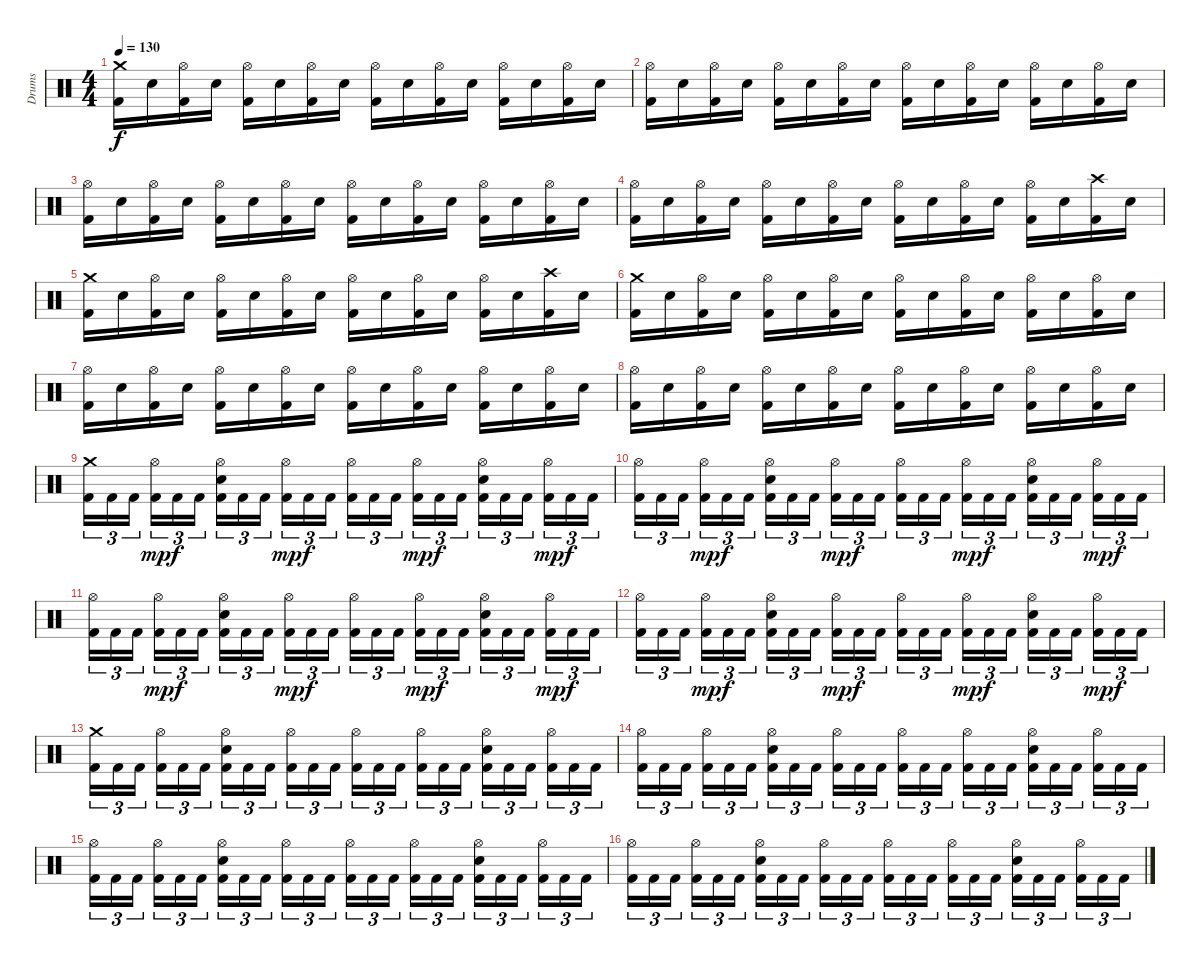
\track ("Drums" "Drums") {instrument percussion}
\staff {score}
\articulation defaults
\ts (4 4)
\tempo 130
\clef neutral
\ks c
("Kick (hit) 2" "Crash medium (hit)").16{dy f} "Electric Snare (hit)".16 ("Kick (hit) 2" "Hi-Hat (open)").16 "Electric Snare (hit)".16 ("Kick (hit) 2" "Hi-Hat (open)").16 "Electric Snare (hit)".16 ("Kick (hit) 2" "Hi-Hat (open)").16 "Electric Snare (hit)".16 ("Kick (hit) 2" "Hi-Hat (open)").16 "Electric Snare (hit)".16 ("Kick (hit) 2" "Hi-Hat (open)").16 "Electric Snare (hit)".16 ("Kick (hit) 2" "Hi-Hat (open)").16 "Electric Snare (hit)".16 ("Kick (hit) 2" "Hi-Hat (open)").16 "Electric Snare (hit)".16 |
("Kick (hit) 2" "Hi-Hat (open)").16 "Electric Snare (hit)".16 ("Kick (hit) 2" "Hi-Hat (open)").16 "Electric Snare (hit)".16 ("Kick (hit) 2" "Hi-Hat (open)").16 "Electric Snare (hit)".16 ("Kick (hit) 2" "Hi-Hat (open)").16 "Electric Snare (hit)".16 ("Kick (hit) 2" "Hi-Hat (open)").16 "Electric Snare (hit)".16 ("Kick (hit) 2" "Hi-Hat (open)").16 "Electric Snare (hit)".16 ("Kick (hit) 2" "Hi-Hat (open)").16 "Electric Snare (hit)".16 ("Kick (hit) 2" "Hi-Hat (open)").16 "Electric Snare (hit)".16 |
("Kick (hit) 2" "Hi-Hat (open)").16 "Electric Snare (hit)".16 ("Kick (hit) 2" "Hi-Hat (open)").16 "Electric Snare (hit)".16 ("Kick (hit) 2" "Hi-Hat (open)").16 "Electric Snare (hit)".16 ("Kick (hit) 2" "Hi-Hat (open)").16 "Electric Snare (hit)".16 ("Kick (hit) 2" "Hi-Hat (open)").16 "Electric Snare (hit)".16 ("Kick (hit) 2" "Hi-Hat (open)").16 "Electric Snare (hit)".16 ("Kick (hit) 2" "Hi-Hat (open)").16 "Electric Snare (hit)".16 ("Kick (hit) 2" "Hi-Hat (open)").16 "Electric Snare (hit)".16 |
("Kick (hit) 2" "Hi-Hat (open)").16 "Electric Snare (hit)".16 ("Kick (hit) 2" "Hi-Hat (open)").16 "Electric Snare (hit)".16 ("Kick (hit) 2" "Hi-Hat (open)").16 "Electric Snare (hit)".16 ("Kick (hit) 2" "Hi-Hat (open)").16 "Electric Snare (hit)".16 ("Kick (hit) 2" "Hi-Hat (open)").16 "Electric Snare (hit)".16 ("Kick (hit) 2" "Hi-Hat (open)").16 "Electric Snare (hit)".16 ("Kick (hit) 2" "Hi-Hat (open)").16 "Electric Snare (hit)".16 ("Kick (hit) 2" "Crash high (hit)").16 "Electric Snare (hit)".16 |
("Kick (hit) 2" "Crash medium (hit)").16 "Electric Snare (hit)".16 ("Kick (hit) 2" "Hi-Hat (open)").16 "Electric Snare (hit)".16 ("Kick (hit) 2" "Hi-Hat (open)").16 "Electric Snare (hit)".16 ("Kick (hit) 2" "Hi-Hat (open)").16 "Electric Snare (hit)".16 ("Kick (hit) 2" "Hi-Hat (open)").16 "Electric Snare (hit)".16 ("Kick (hit) 2" "Hi-Hat (open)").16 "Electric Snare (hit)".16 ("Kick (hit) 2" "Hi-Hat (open)").16 "Electric Snare (hit)".16 ("Kick (hit) 2" "Crash high (hit)").16 "Electric Snare (hit)".16 |
("Kick (hit) 2" "Crash medium (hit)").16 "Electric Snare (hit)".16 ("Kick (hit) 2" "Hi-Hat (open)").16 "Electric Snare (hit)".16 ("Kick (hit) 2" "Hi-Hat (open)").16 "Electric Snare (hit)".16 ("Kick (hit) 2" "Hi-Hat (open)").16 "Electric Snare (hit)".16 ("Kick (hit) 2" "Hi-Hat (open)").16 "Electric Snare (hit)".16 ("Kick (hit) 2" "Hi-Hat (open)").16 "Electric Snare (hit)".16 ("Kick (hit) 2" "Hi-Hat (open)").16 "Electric Snare (hit)".16 ("Kick (hit) 2" "Hi-Hat (open)").16 "Electric Snare (hit)".16 |
("Kick (hit) 2" "Hi-Hat (open)").16 "Electric Snare (hit)".16 ("Kick (hit) 2" "Hi-Hat (open)").16 "Electric Snare (hit)".16 ("Kick (hit) 2" "Hi-Hat (open)").16 "Electric Snare (hit)".16 ("Kick (hit) 2" "Hi-Hat (open)").16 "Electric Snare (hit)".16 ("Kick (hit) 2" "Hi-Hat (open)").16 "Electric Snare (hit)".16 ("Kick (hit) 2" "Hi-Hat (open)").16 "Electric Snare (hit)".16 ("Kick (hit) 2" "Hi-Hat (open)").16 "Electric Snare (hit)".16 ("Kick (hit) 2" "Hi-Hat (open)").16 "Electric Snare (hit)".16 |
("Kick (hit) 2" "Hi-Hat (open)").16 "Electric Snare (hit)".16 ("Kick (hit) 2" "Hi-Hat (open)").16 "Electric Snare (hit)".16 ("Kick (hit) 2" "Hi-Hat (open)").16 "Electric Snare (hit)".16 ("Kick (hit) 2" "Hi-Hat (open)").16 "Electric Snare (hit)".16 ("Kick (hit) 2" "Hi-Hat (open)").16 "Electric Snare (hit)".16 ("Kick (hit) 2" "Hi-Hat (open)").16 "Electric Snare (hit)".16 ("Kick (hit) 2" "Hi-Hat (open)").16 "Electric Snare (hit)".16 ("Kick (hit) 2" "Hi-Hat (open)").16 "Electric Snare (hit)".16 |
("Kick (hit) 2" "Crash medium (hit)").16{tu (3 2)} "Kick (hit) 2".16{tu (3 2)} "Kick (hit) 2".16{tu (3 2) beam splitsecondary} ("Kick (hit) 2" "Hi-Hat (open)").16{tu (3 2) dy mp} "Kick (hit) 2".16{tu (3 2) dy f} "Kick (hit) 2".16{tu (3 2)} ("Kick (hit) 2" "Electric Snare (hit)" "Hi-Hat (open)").16{tu (3 2)} "Kick (hit) 2".16{tu (3 2)} "Kick (hit) 2".16{tu (3 2) beam splitsecondary} ("Kick (hit) 2" "Hi-Hat (open)").16{tu (3 2) dy mp} "Kick (hit) 2".16{tu (3 2) dy f} "Kick (hit) 2".16{tu (3 2)} ("Kick (hit) 2" "Hi-Hat (open)").16{tu (3 2)} "Kick (hit) 2".16{tu (3 2)} "Kick (hit) 2".16{tu (3 2) beam splitsecondary} ("Kick (hit) 2" "Hi-Hat (open)").16{tu (3 2) dy mp} "Kick (hit) 2".16{tu (3 2) dy f} "Kick (hit) 2".16{tu (3 2)} ("Kick (hit) 2" "Electric Snare (hit)" "Hi-Hat (open)").16{tu (3 2)} "Kick (hit) 2".16{tu (3 2)} "Kick (hit) 2".16{tu (3 2) beam splitsecondary} ("Kick (hit) 2" "Hi-Hat (open)").16{tu (3 2) dy mp} "Kick (hit) 2".16{tu (3 2) dy f} "Kick (hit) 2".16{tu (3 2)} |
("Kick (hit) 2" "Hi-Hat (open)").16{tu (3 2)} "Kick (hit) 2".16{tu (3 2)} "Kick (hit) 2".16{tu (3 2) beam splitsecondary} ("Kick (hit) 2" "Hi-Hat (open)").16{tu (3 2) dy mp} "Kick (hit) 2".16{tu (3 2) dy f} "Kick (hit) 2".16{tu (3 2)} ("Kick (hit) 2" "Electric Snare (hit)" "Hi-Hat (open)").16{tu (3 2)} "Kick (hit) 2".16{tu (3 2)} "Kick (hit) 2".16{tu (3 2) beam splitsecondary} ("Kick (hit) 2" "Hi-Hat (open)").16{tu (3 2) dy mp} "Kick (hit) 2".16{tu (3 2) dy f} "Kick (hit) 2".16{tu (3 2)} ("Kick (hit) 2" "Hi-Hat (open)").16{tu (3 2)} "Kick (hit) 2".16{tu (3 2)} "Kick (hit) 2".16{tu (3 2) beam splitsecondary} ("Kick (hit) 2" "Hi-Hat (open)").16{tu (3 2) dy mp} "Kick (hit) 2".16{tu (3 2) dy f} "Kick (hit) 2".16{tu (3 2)} ("Kick (hit) 2" "Electric Snare (hit)" "Hi-Hat (open)").16{tu (3 2)} "Kick (hit) 2".16{tu (3 2)} "Kick (hit) 2".16{tu (3 2) beam splitsecondary} ("Kick (hit) 2" "Hi-Hat (open)").16{tu (3 2) dy mp} "Kick (hit) 2".16{tu (3 2) dy f} "Kick (hit) 2".16{tu (3 2)} |
("Kick (hit) 2" "Hi-Hat (open)").16{tu (3 2)} "Kick (hit) 2".16{tu (3 2)} "Kick (hit) 2".16{tu (3 2) beam splitsecondary} ("Kick (hit) 2" "Hi-Hat (open)").16{tu (3 2) dy mp} "Kick (hit) 2".16{tu (3 2) dy f} "Kick (hit) 2".16{tu (3 2)} ("Kick (hit) 2" "Electric Snare (hit)" "Hi-Hat (open)").16{tu (3 2)} "Kick (hit) 2".16{tu (3 2)} "Kick (hit) 2".16{tu (3 2) beam splitsecondary} ("Kick (hit) 2" "Hi-Hat (open)").16{tu (3 2) dy mp} "Kick (hit) 2".16{tu (3 2) dy f} "Kick (hit) 2".16{tu (3 2)} ("Kick (hit) 2" "Hi-Hat (open)").16{tu (3 2)} "Kick (hit) 2".16{tu (3 2)} "Kick (hit) 2".16{tu (3 2) beam splitsecondary} ("Kick (hit) 2" "Hi-Hat (open)").16{tu (3 2) dy mp} "Kick (hit) 2".16{tu (3 2) dy f} "Kick (hit) 2".16{tu (3 2)} ("Kick (hit) 2" "Electric Snare (hit)" "Hi-Hat (open)").16{tu (3 2)} "Kick (hit) 2".16{tu (3 2)} "Kick (hit) 2".16{tu (3 2) beam splitsecondary} ("Kick (hit) 2" "Hi-Hat (open)").16{tu (3 2) dy mp} "Kick (hit) 2".16{tu (3 2) dy f} "Kick (hit) 2".16{tu (3 2)} |
("Kick (hit) 2" "Hi-Hat (open)").16{tu (3 2)} "Kick (hit) 2".16{tu (3 2)} "Kick (hit) 2".16{tu (3 2) beam splitsecondary} ("Kick (hit) 2" "Hi-Hat (open)").16{tu (3 2) dy mp} "Kick (hit) 2".16{tu (3 2) dy f} "Kick (hit) 2".16{tu (3 2)} ("Kick (hit) 2" "Electric Snare (hit)" "Hi-Hat (open)").16{tu (3 2)} "Kick (hit) 2".16{tu (3 2)} "Kick (hit) 2".16{tu (3 2) beam splitsecondary} ("Kick (hit) 2" "Hi-Hat (open)").16{tu (3 2) dy mp} "Kick (hit) 2".16{tu (3 2) dy f} "Kick (hit) 2".16{tu (3 2)} ("Kick (hit) 2" "Hi-Hat (open)").16{tu (3 2)} "Kick (hit) 2".16{tu (3 2)} "Kick (hit) 2".16{tu (3 2) beam splitsecondary} ("Kick (hit) 2" "Hi-Hat (open)").16{tu (3 2) dy mp} "Kick (hit) 2".16{tu (3 2) dy f} "Kick (hit) 2".16{tu (3 2)} ("Kick (hit) 2" "Electric Snare (hit)" "Hi-Hat (open)").16{tu (3 2)} "Kick (hit) 2".16{tu (3 2)} "Kick (hit) 2".16{tu (3 2) beam splitsecondary} ("Kick (hit) 2" "Hi-Hat (open)").16{tu (3 2) dy mp} "Kick (hit) 2".16{tu (3 2) dy f} "Kick (hit) 2".16{tu (3 2)} |
("Kick (hit) 2" "Crash medium (hit)").16{tu (3 2)} "Kick (hit) 2".16{tu (3 2)} "Kick (hit) 2".16{tu (3 2) beam splitsecondary} ("Kick (hit) 2" "Hi-Hat (open)").16{tu (3 2)} "Kick (hit) 2".16{tu (3 2)} "Kick (hit) 2".16{tu (3 2)} ("Kick (hit) 2" "Electric Snare (hit)" "Hi-Hat (open)").16{tu (3 2)} "Kick (hit) 2".16{tu (3 2)} "Kick (hit) 2".16{tu (3 2) beam splitsecondary} ("Kick (hit) 2" "Hi-Hat (open)").16{tu (3 2)} "Kick (hit) 2".16{tu (3 2)} "Kick (hit) 2".16{tu (3 2)} ("Kick (hit) 2" "Hi-Hat (open)").16{tu (3 2)} "Kick (hit) 2".16{tu (3 2)} "Kick (hit) 2".16{tu (3 2) beam splitsecondary} ("Kick (hit) 2" "Hi-Hat (open)").16{tu (3 2)} "Kick (hit) 2".16{tu (3 2)} "Kick (hit) 2".16{tu (3 2)} ("Kick (hit) 2" "Electric Snare (hit)" "Hi-Hat (open)").16{tu (3 2)} "Kick (hit) 2".16{tu (3 2)} "Kick (hit) 2".16{tu (3 2) beam splitsecondary} ("Kick (hit) 2" "Hi-Hat (open)").16{tu (3 2)} "Kick (hit) 2".16{tu (3 2)} "Kick (hit) 2".16{tu (3 2)} |
("Kick (hit) 2" "Hi-Hat (open)").16{tu (3 2)} "Kick (hit) 2".16{tu (3 2)} "Kick (hit) 2".16{tu (3 2) beam splitsecondary} ("Kick (hit) 2" "Hi-Hat (open)").16{tu (3 2)} "Kick (hit) 2".16{tu (3 2)} "Kick (hit) 2".16{tu (3 2)} ("Kick (hit) 2" "Electric Snare (hit)" "Hi-Hat (open)").16{tu (3 2)} "Kick (hit) 2".16{tu (3 2)} "Kick (hit) 2".16{tu (3 2) beam splitsecondary} ("Kick (hit) 2" "Hi-Hat (open)").16{tu (3 2)} "Kick (hit) 2".16{tu (3 2)} "Kick (hit) 2".16{tu (3 2)} ("Kick (hit) 2" "Hi-Hat (open)").16{tu (3 2)} "Kick (hit) 2".16{tu (3 2)} "Kick (hit) 2".16{tu (3 2) beam splitsecondary} ("Kick (hit) 2" "Hi-Hat (open)").16{tu (3 2)} "Kick (hit) 2".16{tu (3 2)} "Kick (hit) 2".16{tu (3 2)} ("Kick (hit) 2" "Electric Snare (hit)" "Hi-Hat (open)").16{tu (3 2)} "Kick (hit) 2".16{tu (3 2)} "Kick (hit) 2".16{tu (3 2) beam splitsecondary} ("Kick (hit) 2" "Hi-Hat (open)").16{tu (3 2)} "Kick (hit) 2".16{tu (3 2)} "Kick (hit) 2".16{tu (3 2)} |
("Kick (hit) 2" "Hi-Hat (open)").16{tu (3 2)} "Kick (hit) 2".16{tu (3 2)} "Kick (hit) 2".16{tu (3 2) beam splitsecondary} ("Kick (hit) 2" "Hi-Hat (open)").16{tu (3 2)} "Kick (hit) 2".16{tu (3 2)} "Kick (hit) 2".16{tu (3 2)} ("Kick (hit) 2" "Electric Snare (hit)" "Hi-Hat (open)").16{tu (3 2)} "Kick (hit) 2".16{tu (3 2)} "Kick (hit) 2".16{tu (3 2) beam splitsecondary} ("Kick (hit) 2" "Hi-Hat (open)").16{tu (3 2)} "Kick (hit) 2".16{tu (3 2)} "Kick (hit) 2".16{tu (3 2)} ("Kick (hit) 2" "Hi-Hat (open)").16{tu (3 2)} "Kick (hit) 2".16{tu (3 2)} "Kick (hit) 2".16{tu (3 2) beam splitsecondary} ("Kick (hit) 2" "Hi-Hat (open)").16{tu (3 2)} "Kick (hit) 2".16{tu (3 2)} "Kick (hit) 2".16{tu (3 2)} ("Kick (hit) 2" "Electric Snare (hit)" "Hi-Hat (open)").16{tu (3 2)} "Kick (hit) 2".16{tu (3 2)} "Kick (hit) 2".16{tu (3 2) beam splitsecondary} ("Kick (hit) 2" "Hi-Hat (open)").16{tu (3 2)} "Kick (hit) 2".16{tu (3 2)} "Kick (hit) 2".16{tu (3 2)} |
("Kick (hit) 2" "Hi-Hat (open)").16{tu (3 2)} "Kick (hit) 2".16{tu (3 2)} "Kick (hit) 2".16{tu (3 2) beam splitsecondary} ("Kick (hit) 2" "Hi-Hat (open)").16{tu (3 2)} "Kick (hit) 2".16{tu (3 2)} "Kick (hit) 2".16{tu (3 2)} ("Kick (hit) 2" "Electric Snare (hit)" "Hi-Hat (open)").16{tu (3 2)} "Kick (hit) 2".16{tu (3 2)} "Kick (hit) 2".16{tu (3 2) beam splitsecondary} ("Kick (hit) 2" "Hi-Hat (open)").16{tu (3 2)} "Kick (hit) 2".16{tu (3 2)} "Kick (hit) 2".16{tu (3 2)} ("Kick (hit) 2" "Hi-Hat (open)").16{tu (3 2)} "Kick (hit) 2".16{tu (3 2)} "Kick (hit) 2".16{tu (3 2) beam splitsecondary} ("Kick (hit) 2" "Hi-Hat (open)").16{tu (3 2)} "Kick (hit) 2".16{tu (3 2)} "Kick (hit) 2".16{tu (3 2)} ("Kick (hit) 2" "Electric Snare (hit)" "Hi-Hat (open)").16{tu (3 2)} "Kick (hit) 2".16{tu (3 2)} "Kick (hit) 2".16{tu (3 2) beam splitsecondary} ("Kick (hit) 2" "Hi-Hat (open)").16{tu (3 2)} "Kick (hit) 2".16{tu (3 2)} "Kick (hit) 2".16{tu (3 2)}
